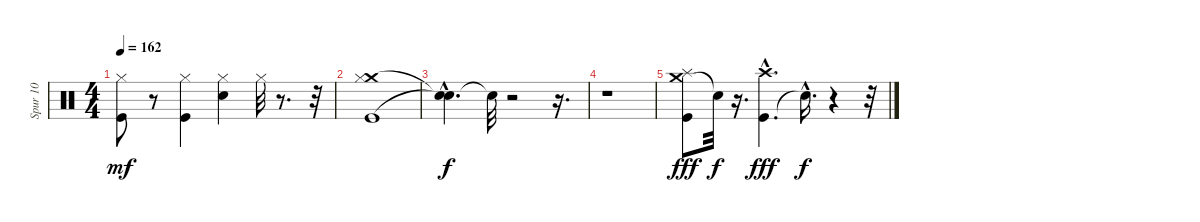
\track ("Spur 10" "Spur 10") {instrument percussion}
\staff {score}
\articulation defaults
\ts (4 4)
\tempo 162
\clef neutral
\ks c
("Kick (hit)" "Hi-Hat (closed)").8{dy mf} r.8 ("Kick (hit)" "Hi-Hat (closed)").4 ("Snare (hit) 2" "Hi-Hat (closed)").4 "Hi-Hat (closed)".32 r.8{d} r.32 |
("Kick (hit)" "Crash medium (hit)" "Hi-Hat (closed)").1 |
("Snare (hit)"{hac t} "Snare (hit)"{hac t}).4{d dy f} "Snare (hit)"{t}.32 r.2 r.16{d} |
r.1 |
("Crash medium (hit)" "Splash (hit)" "Kick (hit)").8{dy fff} "Snare (hit)"{t}.32{dy f} r.16{d} ("Kick (hit)"{hac} "Crash high (hit)"{hac}).4{d dy fff} "Snare (hit)"{hac t}.16{d dy f} r.4 r.32
